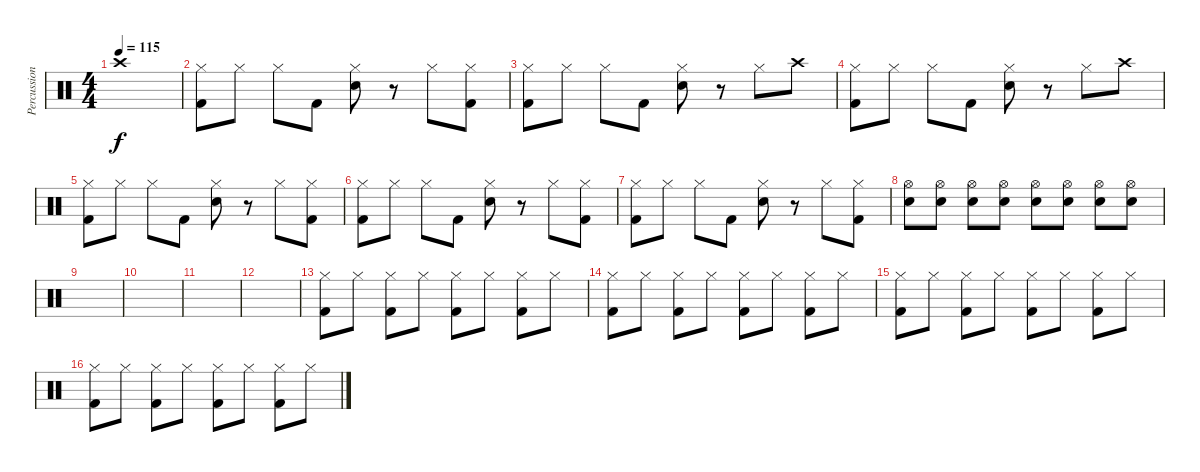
\track ("Percussion" "Percussion") {instrument percussion}
\staff {score}
\articulation defaults
\ts (4 4)
\tempo 115
\clef neutral
\ks c "Crash high (hit)".1{dy f}
|
("Hi-Hat (closed)" "Kick (hit) 2").8 "Hi-Hat (closed)".8 "Hi-Hat (closed)".8 "Kick (hit) 2".8 ("Hi-Hat (closed)" "Snare (hit) 2").8 r.8 "Hi-Hat (closed)".8 ("Hi-Hat (closed)" "Kick (hit) 2").8 |
("Hi-Hat (closed)" "Kick (hit) 2").8 "Hi-Hat (closed)".8 "Hi-Hat (closed)".8 "Kick (hit) 2".8 ("Hi-Hat (closed)" "Snare (hit) 2").8 r.8 "Hi-Hat (closed)".8 "Crash high (hit)".8 |
("Hi-Hat (closed)" "Kick (hit) 2").8 "Hi-Hat (closed)".8 "Hi-Hat (closed)".8 "Kick (hit) 2".8 ("Hi-Hat (closed)" "Snare (hit) 2").8 r.8 "Hi-Hat (closed)".8 "Crash high (hit)".8 |
("Hi-Hat (closed)" "Kick (hit) 2").8 "Hi-Hat (closed)".8 "Hi-Hat (closed)".8 "Kick (hit) 2".8 ("Hi-Hat (closed)" "Snare (hit) 2").8 r.8 "Hi-Hat (closed)".8 ("Hi-Hat (closed)" "Kick (hit) 2").8 |
("Hi-Hat (closed)" "Kick (hit) 2").8 "Hi-Hat (closed)".8 "Hi-Hat (closed)".8 "Kick (hit) 2".8 ("Hi-Hat (closed)" "Snare (hit) 2").8 r.8 "Hi-Hat (closed)".8 ("Hi-Hat (closed)" "Kick (hit) 2").8 |
("Hi-Hat (closed)" "Kick (hit) 2").8 "Hi-Hat (closed)".8 "Hi-Hat (closed)".8 "Kick (hit) 2".8 ("Hi-Hat (closed)" "Snare (hit) 2").8 r.8 "Hi-Hat (closed)".8 ("Hi-Hat (closed)" "Kick (hit) 2").8 |
("Hi-Hat (open)" "Snare (hit) 2").8 ("Hi-Hat (open)" "Snare (hit) 2").8 ("Hi-Hat (open)" "Snare (hit) 2").8 ("Hi-Hat (open)" "Snare (hit) 2").8 ("Hi-Hat (open)" "Snare (hit) 2").8 ("Hi-Hat (open)" "Snare (hit) 2").8 ("Hi-Hat (open)" "Snare (hit) 2").8 ("Hi-Hat (open)" "Snare (hit) 2").8 |
|
|
|
|
("Hi-Hat (closed)" "Kick (hit) 2").8 "Hi-Hat (closed)".8 ("Hi-Hat (closed)" "Kick (hit) 2").8 "Hi-Hat (closed)".8 ("Hi-Hat (closed)" "Kick (hit) 2").8 "Hi-Hat (closed)".8 ("Hi-Hat (closed)" "Kick (hit) 2").8 "Hi-Hat (closed)".8 |
("Hi-Hat (closed)" "Kick (hit) 2").8 "Hi-Hat (closed)".8 ("Hi-Hat (closed)" "Kick (hit) 2").8 "Hi-Hat (closed)".8 ("Hi-Hat (closed)" "Kick (hit) 2").8 "Hi-Hat (closed)".8 ("Hi-Hat (closed)" "Kick (hit) 2").8 "Hi-Hat (closed)".8 |
("Hi-Hat (closed)" "Kick (hit) 2").8 "Hi-Hat (closed)".8 ("Hi-Hat (closed)" "Kick (hit) 2").8 "Hi-Hat (closed)".8 ("Hi-Hat (closed)" "Kick (hit) 2").8 "Hi-Hat (closed)".8 ("Hi-Hat (closed)" "Kick (hit) 2").8 "Hi-Hat (closed)".8 |
("Hi-Hat (closed)" "Kick (hit) 2").8 "Hi-Hat (closed)".8 ("Hi-Hat (closed)" "Kick (hit) 2").8 "Hi-Hat (closed)".8 ("Hi-Hat (closed)" "Kick (hit) 2").8 "Hi-Hat (closed)".8 ("Hi-Hat (closed)" "Kick (hit) 2").8 "Hi-Hat (closed)".8
